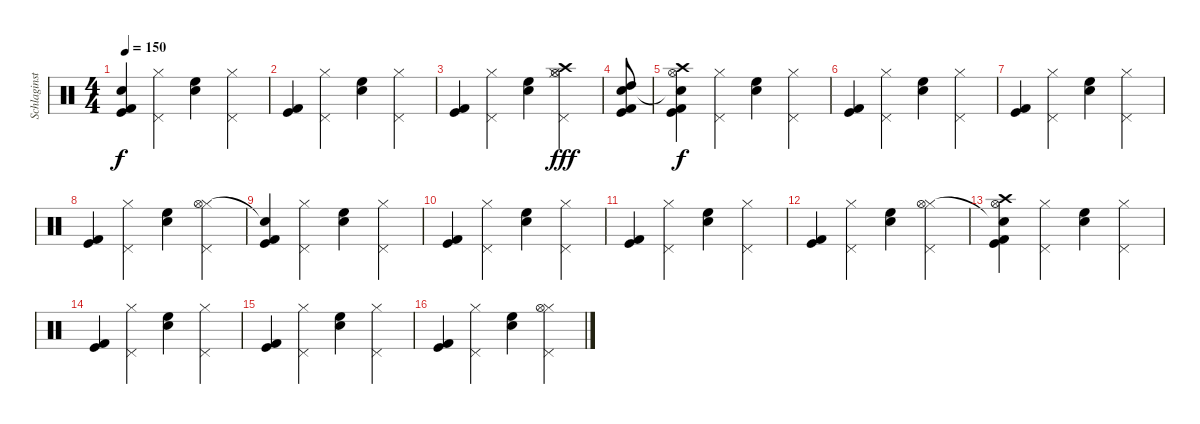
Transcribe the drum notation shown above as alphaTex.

\track ("Schlaginstrumente - Auswahl" "Schlaginst") {instrument percussion}
\staff {score}
\articulation defaults
\ts (4 4)
\tempo 150
\clef neutral
\ks c
("Kick (hit) 2" "Kick (hit)" "Snare (hit)"{t}).4{dy f} ("Pedal Hi-Hat (hit)" "Hi-Hat (closed)").4 ("High Floor Tom (hit)" "Snare (hit) 2").4 ("Pedal Hi-Hat (hit)" "Hi-Hat (closed)").4 |
("Kick (hit) 2" "Kick (hit)").4 ("Pedal Hi-Hat (hit)" "Hi-Hat (closed)").4 ("High Floor Tom (hit)" "Snare (hit) 2").4 ("Pedal Hi-Hat (hit)" "Hi-Hat (closed)").4 |
("Kick (hit) 2" "Kick (hit)").4 ("Pedal Hi-Hat (hit)" "Hi-Hat (closed)").4 ("High Floor Tom (hit)" "Snare (hit) 2").4 ("Pedal Hi-Hat (hit)" "Hi-Hat (closed)" "Hi-Hat (open)" "Crash high (hit)").4{dy fff} |
("Kick (hit)" "Kick (hit) 2" "Snare (hit) 2" "High Tom (hit)").8 |
("Kick (hit) 2" "Kick (hit)" "Snare (hit)"{t} "Hi-Hat (open)" "Crash high (hit)").4{dy f} ("Pedal Hi-Hat (hit)" "Hi-Hat (closed)").4 ("High Floor Tom (hit)" "Snare (hit) 2").4 ("Pedal Hi-Hat (hit)" "Hi-Hat (closed)").4 |
("Kick (hit) 2" "Kick (hit)").4 ("Pedal Hi-Hat (hit)" "Hi-Hat (closed)").4 ("High Floor Tom (hit)" "Snare (hit) 2").4 ("Pedal Hi-Hat (hit)" "Hi-Hat (closed)").4 |
("Kick (hit) 2" "Kick (hit)").4 ("Pedal Hi-Hat (hit)" "Hi-Hat (closed)").4 ("High Floor Tom (hit)" "Snare (hit) 2").4 ("Pedal Hi-Hat (hit)" "Hi-Hat (closed)").4 |
("Kick (hit) 2" "Kick (hit)").4 ("Pedal Hi-Hat (hit)" "Hi-Hat (closed)").4 ("High Floor Tom (hit)" "Snare (hit) 2").4 ("Pedal Hi-Hat (hit)" "Hi-Hat (closed)" "Hi-Hat (open)").4 |
("Kick (hit) 2" "Kick (hit)" "Snare (hit)"{t}).4 ("Pedal Hi-Hat (hit)" "Hi-Hat (closed)").4 ("High Floor Tom (hit)" "Snare (hit) 2").4 ("Pedal Hi-Hat (hit)" "Hi-Hat (closed)").4 |
("Kick (hit) 2" "Kick (hit)").4 ("Pedal Hi-Hat (hit)" "Hi-Hat (closed)").4 ("High Floor Tom (hit)" "Snare (hit) 2").4 ("Pedal Hi-Hat (hit)" "Hi-Hat (closed)").4 |
("Kick (hit) 2" "Kick (hit)").4 ("Pedal Hi-Hat (hit)" "Hi-Hat (closed)").4 ("High Floor Tom (hit)" "Snare (hit) 2").4 ("Pedal Hi-Hat (hit)" "Hi-Hat (closed)").4 |
("Kick (hit) 2" "Kick (hit)").4 ("Pedal Hi-Hat (hit)" "Hi-Hat (closed)").4 ("High Floor Tom (hit)" "Snare (hit) 2").4 ("Pedal Hi-Hat (hit)" "Hi-Hat (closed)" "Hi-Hat (open)").4 |
("Kick (hit) 2" "Kick (hit)" "Snare (hit)"{t} "Hi-Hat (open)" "Crash high (hit)").4 ("Pedal Hi-Hat (hit)" "Hi-Hat (closed)").4 ("High Floor Tom (hit)" "Snare (hit) 2").4 ("Pedal Hi-Hat (hit)" "Hi-Hat (closed)").4 |
("Kick (hit) 2" "Kick (hit)").4 ("Pedal Hi-Hat (hit)" "Hi-Hat (closed)").4 ("High Floor Tom (hit)" "Snare (hit) 2").4 ("Pedal Hi-Hat (hit)" "Hi-Hat (closed)").4 |
("Kick (hit) 2" "Kick (hit)").4 ("Pedal Hi-Hat (hit)" "Hi-Hat (closed)").4 ("High Floor Tom (hit)" "Snare (hit) 2").4 ("Pedal Hi-Hat (hit)" "Hi-Hat (closed)").4 |
("Kick (hit) 2" "Kick (hit)").4 ("Pedal Hi-Hat (hit)" "Hi-Hat (closed)").4 ("High Floor Tom (hit)" "Snare (hit) 2").4 ("Pedal Hi-Hat (hit)" "Hi-Hat (closed)" "Hi-Hat (open)").4
